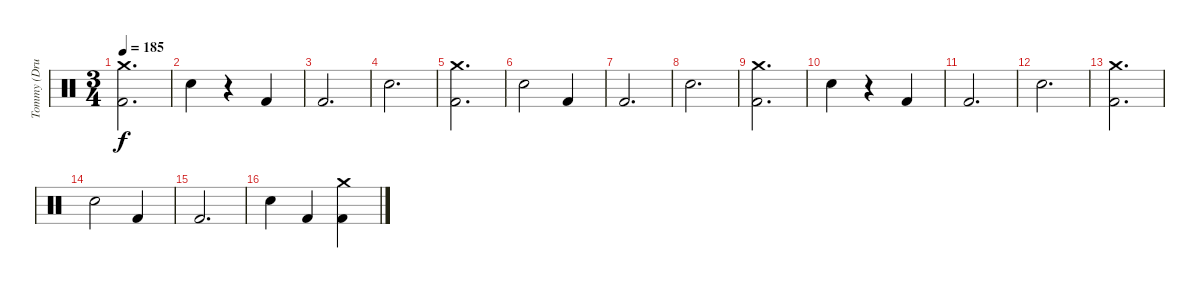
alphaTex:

\track ("Tommy (Drums)" "Tommy (Dru") {instrument percussion}
\staff {score}
\articulation defaults
\ts (3 4)
\tempo 185
\clef neutral
\ks c
("Crash medium (hit)" "Kick (hit) 2").2{d dy f} |
"Electric Snare (hit)".4 r.4 "Kick (hit) 2".4 |
"Kick (hit) 2".2{d} |
"Electric Snare (hit)".2{d} |
("Crash medium (hit)" "Kick (hit) 2").2{d} |
"Electric Snare (hit)".2 "Kick (hit) 2".4 |
"Kick (hit) 2".2{d} |
"Electric Snare (hit)".2{d} |
("Crash medium (hit)" "Kick (hit) 2").2{d} |
"Electric Snare (hit)".4 r.4 "Kick (hit) 2".4 |
"Kick (hit) 2".2{d} |
"Electric Snare (hit)".2{d} |
("Crash medium (hit)" "Kick (hit) 2").2{d} |
"Electric Snare (hit)".2 "Kick (hit) 2".4 |
"Kick (hit) 2".2{d} |
"Electric Snare (hit)".4 "Kick (hit) 2".4 ("Crash medium (hit)" "Kick (hit) 2").4
